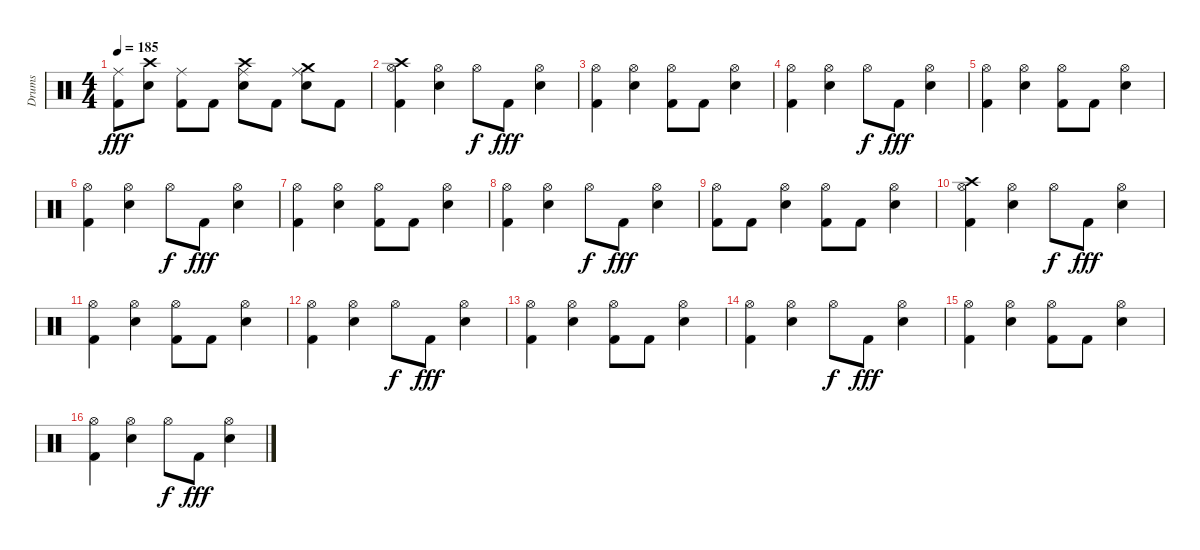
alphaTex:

\track ("Drums" "Drums") {instrument percussion}
\staff {score}
\articulation defaults
\ts (4 4)
\tempo 185
\clef neutral
\ks c
("Kick (hit) 2" "Ride (middle)").8{dy fff} ("Crash high (hit)" "Snare (hit) 2").8 ("Kick (hit) 2" "Ride (middle)").8 "Kick (hit) 2".8 ("Crash high (hit)" "Snare (hit) 2" "Ride (middle)").8 "Kick (hit) 2".8 ("Snare (hit) 2" "Crash medium (hit)" "Ride (middle)").8 "Kick (hit) 2".8 |
("Kick (hit) 2" "Crash high (hit)" "Hi-Hat (open)").4 ("Snare (hit) 2" "Hi-Hat (open)").4 "Hi-Hat (open)".8{dy f} "Kick (hit) 2".8{dy fff} ("Snare (hit) 2" "Hi-Hat (open)").4 |
("Kick (hit) 2" "Hi-Hat (open)").4 ("Snare (hit) 2" "Hi-Hat (open)").4 ("Kick (hit) 2" "Hi-Hat (open)").8 "Kick (hit) 2".8 ("Snare (hit) 2" "Hi-Hat (open)").4 |
("Kick (hit) 2" "Hi-Hat (open)").4 ("Snare (hit) 2" "Hi-Hat (open)").4 "Hi-Hat (open)".8{dy f} "Kick (hit) 2".8{dy fff} ("Snare (hit) 2" "Hi-Hat (open)").4 |
("Kick (hit) 2" "Hi-Hat (open)").4 ("Snare (hit) 2" "Hi-Hat (open)").4 ("Kick (hit) 2" "Hi-Hat (open)").8 "Kick (hit) 2".8 ("Snare (hit) 2" "Hi-Hat (open)").4 |
("Kick (hit) 2" "Hi-Hat (open)").4 ("Snare (hit) 2" "Hi-Hat (open)").4 "Hi-Hat (open)".8{dy f} "Kick (hit) 2".8{dy fff} ("Snare (hit) 2" "Hi-Hat (open)").4 |
("Kick (hit) 2" "Hi-Hat (open)").4 ("Snare (hit) 2" "Hi-Hat (open)").4 ("Kick (hit) 2" "Hi-Hat (open)").8 "Kick (hit) 2".8 ("Snare (hit) 2" "Hi-Hat (open)").4 |
("Kick (hit) 2" "Hi-Hat (open)").4 ("Snare (hit) 2" "Hi-Hat (open)").4 "Hi-Hat (open)".8{dy f} "Kick (hit) 2".8{dy fff} ("Snare (hit) 2" "Hi-Hat (open)").4 |
("Kick (hit) 2" "Hi-Hat (open)").8 "Kick (hit) 2".8 ("Snare (hit) 2" "Hi-Hat (open)").4 ("Kick (hit) 2" "Hi-Hat (open)").8 "Kick (hit) 2".8 ("Snare (hit) 2" "Hi-Hat (open)").4 |
("Kick (hit) 2" "Crash high (hit)" "Hi-Hat (open)").4 ("Snare (hit) 2" "Hi-Hat (open)").4 "Hi-Hat (open)".8{dy f} "Kick (hit) 2".8{dy fff} ("Snare (hit) 2" "Hi-Hat (open)").4 |
("Kick (hit) 2" "Hi-Hat (open)").4 ("Snare (hit) 2" "Hi-Hat (open)").4 ("Kick (hit) 2" "Hi-Hat (open)").8 "Kick (hit) 2".8 ("Snare (hit) 2" "Hi-Hat (open)").4 |
("Kick (hit) 2" "Hi-Hat (open)").4 ("Snare (hit) 2" "Hi-Hat (open)").4 "Hi-Hat (open)".8{dy f} "Kick (hit) 2".8{dy fff} ("Snare (hit) 2" "Hi-Hat (open)").4 |
("Kick (hit) 2" "Hi-Hat (open)").4 ("Snare (hit) 2" "Hi-Hat (open)").4 ("Kick (hit) 2" "Hi-Hat (open)").8 "Kick (hit) 2".8 ("Snare (hit) 2" "Hi-Hat (open)").4 |
("Kick (hit) 2" "Hi-Hat (open)").4 ("Snare (hit) 2" "Hi-Hat (open)").4 "Hi-Hat (open)".8{dy f} "Kick (hit) 2".8{dy fff} ("Snare (hit) 2" "Hi-Hat (open)").4 |
("Kick (hit) 2" "Hi-Hat (open)").4 ("Snare (hit) 2" "Hi-Hat (open)").4 ("Kick (hit) 2" "Hi-Hat (open)").8 "Kick (hit) 2".8 ("Snare (hit) 2" "Hi-Hat (open)").4 |
("Kick (hit) 2" "Hi-Hat (open)").4 ("Snare (hit) 2" "Hi-Hat (open)").4 "Hi-Hat (open)".8{dy f} "Kick (hit) 2".8{dy fff} ("Snare (hit) 2" "Hi-Hat (open)").4
